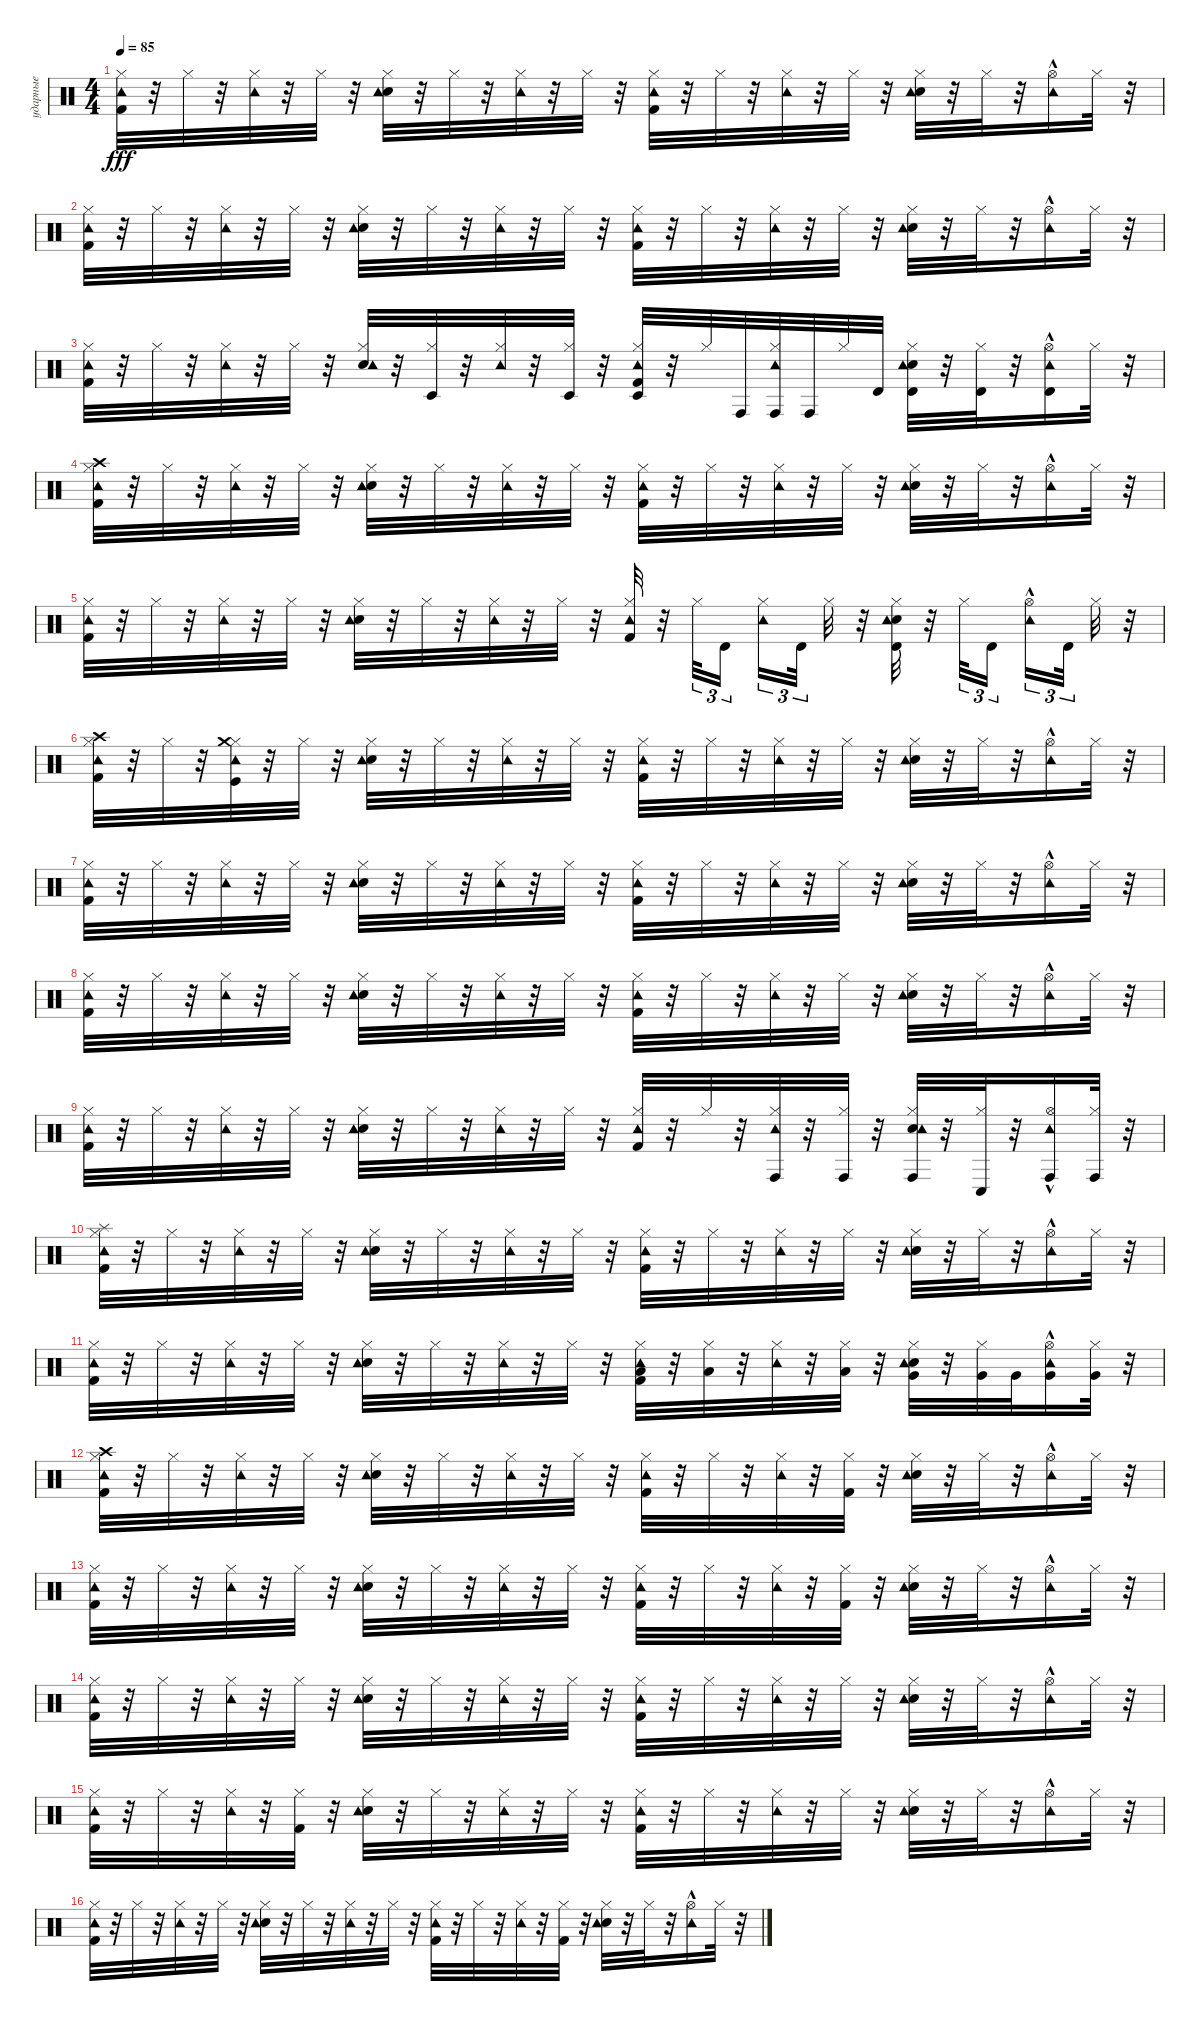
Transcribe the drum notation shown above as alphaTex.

\track ("ударные" "ударные") {instrument percussion}
\staff {score}
\articulation defaults
\ts (4 4)
\tempo 85
\clef neutral
\ks c
("Kick (hit) 2" "Hi-Hat (closed)" "Tambourine (hit)").32{dy fff} r.32 "Hi-Hat (closed)".32 r.32 ("Hi-Hat (closed)" "Tambourine (hit)").32 r.32 "Hi-Hat (closed)".32 r.32 ("Hi-Hat (closed)" "Electric Snare (hit)" "Tambourine (hit)").32 r.32 "Hi-Hat (closed)".32 r.32 ("Hi-Hat (closed)" "Tambourine (hit)").32 r.32 "Hi-Hat (closed)".32 r.32 ("Hi-Hat (closed)" "Kick (hit) 2" "Tambourine (hit)").32 r.32 "Hi-Hat (closed)".32 r.32 ("Hi-Hat (closed)" "Tambourine (hit)").32 r.32 "Hi-Hat (closed)".32 r.32 ("Hi-Hat (closed)" "Electric Snare (hit)" "Tambourine (hit)").32 r.32 "Hi-Hat (closed)".32 r.32 ("Hi-Hat (open)"{hac} "Tambourine (hit)").16 "Hi-Hat (closed)".32 r.32 |
("Kick (hit) 2" "Hi-Hat (closed)" "Tambourine (hit)").32 r.32 "Hi-Hat (closed)".32 r.32 ("Hi-Hat (closed)" "Tambourine (hit)").32 r.32 "Hi-Hat (closed)".32 r.32 ("Hi-Hat (closed)" "Electric Snare (hit)" "Tambourine (hit)").32 r.32 "Hi-Hat (closed)".32 r.32 ("Hi-Hat (closed)" "Tambourine (hit)").32 r.32 "Hi-Hat (closed)".32 r.32 ("Hi-Hat (closed)" "Kick (hit) 2" "Tambourine (hit)").32 r.32 "Hi-Hat (closed)".32 r.32 ("Hi-Hat (closed)" "Tambourine (hit)").32 r.32 "Hi-Hat (closed)".32 r.32 ("Hi-Hat (closed)" "Electric Snare (hit)" "Tambourine (hit)").32 r.32 "Hi-Hat (closed)".32 r.32 ("Hi-Hat (open)"{hac} "Tambourine (hit)").16 "Hi-Hat (closed)".32 r.32 |
("Kick (hit) 2" "Hi-Hat (closed)" "Tambourine (hit)").32 r.32 "Hi-Hat (closed)".32 r.32 ("Hi-Hat (closed)" "Tambourine (hit)").32 r.32 "Hi-Hat (closed)".32 r.32 ("Hi-Hat (closed)" "Electric Snare (hit)" "Tambourine (hit)").32 r.32 ("Hi-Hat (closed)" "Timbale low (hit)").32 r.32 ("Hi-Hat (closed)" "Tambourine (hit)").32 r.32 ("Hi-Hat (closed)" "Timbale low (hit)").32 r.32 ("Hi-Hat (closed)" "Kick (hit) 2" "Tambourine (hit)" "Timbale low (hit)").32 r.32 "Hi-Hat (closed)".32 "Conga high (hit)".32 ("Hi-Hat (closed)" "Tambourine (hit)" "Conga high (hit)").32 "Conga high (hit)".32 "Hi-Hat (closed)".32 "Timbale high (hit)".32 ("Hi-Hat (closed)" "Electric Snare (hit)" "Tambourine (hit)" "Timbale high (hit)").32 r.32 ("Hi-Hat (closed)" "Timbale high (hit)").32 r.32 ("Hi-Hat (open)"{hac} "Tambourine (hit)" "Timbale high (hit)").16 "Hi-Hat (closed)".32 r.32 |
("Kick (hit) 2" "Hi-Hat (closed)" "Tambourine (hit)" "Crash high (hit)").32 r.32 "Hi-Hat (closed)".32 r.32 ("Hi-Hat (closed)" "Tambourine (hit)").32 r.32 "Hi-Hat (closed)".32 r.32 ("Hi-Hat (closed)" "Electric Snare (hit)" "Tambourine (hit)").32 r.32 "Hi-Hat (closed)".32 r.32 ("Hi-Hat (closed)" "Tambourine (hit)").32 r.32 "Hi-Hat (closed)".32 r.32 ("Hi-Hat (closed)" "Kick (hit) 2" "Tambourine (hit)").32 r.32 "Hi-Hat (closed)".32 r.32 ("Hi-Hat (closed)" "Tambourine (hit)").32 r.32 "Hi-Hat (closed)".32 r.32 ("Hi-Hat (closed)" "Electric Snare (hit)" "Tambourine (hit)").32 r.32 "Hi-Hat (closed)".32 r.32 ("Hi-Hat (open)"{hac} "Tambourine (hit)").16 "Hi-Hat (closed)".32 r.32 |
("Kick (hit) 2" "Hi-Hat (closed)" "Tambourine (hit)").32 r.32 "Hi-Hat (closed)".32 r.32 ("Hi-Hat (closed)" "Tambourine (hit)").32 r.32 "Hi-Hat (closed)".32 r.32 ("Hi-Hat (closed)" "Electric Snare (hit)" "Tambourine (hit)").32 r.32 "Hi-Hat (closed)".32 r.32 ("Hi-Hat (closed)" "Tambourine (hit)").32 r.32 "Hi-Hat (closed)".32 r.32 ("Hi-Hat (closed)" "Kick (hit) 2" "Tambourine (hit)").32 r.32 "Hi-Hat (closed)".32{tu (3 2)} "Timbale high (hit)".16{tu (3 2)} ("Hi-Hat (closed)" "Tambourine (hit)").16{tu (3 2)} "Timbale high (hit)".32{tu (3 2)} "Hi-Hat (closed)".32 r.32 ("Timbale high (hit)" "Hi-Hat (closed)" "Electric Snare (hit)" "Tambourine (hit)").32 r.32 "Hi-Hat (closed)".32{tu (3 2)} "Timbale high (hit)".16{tu (3 2)} ("Hi-Hat (open)"{hac} "Tambourine (hit)").16{tu (3 2)} "Timbale high (hit)".32{tu (3 2)} "Hi-Hat (closed)".32 r.32 |
("Crash high (hit)" "Kick (hit) 2" "Hi-Hat (closed)" "Tambourine (hit)").32 r.32 "Hi-Hat (closed)".32 r.32 ("Hi-Hat (closed)" "Tambourine (hit)" "Crash medium (hit)" "Kick (hit)").32 r.32 "Hi-Hat (closed)".32 r.32 ("Hi-Hat (closed)" "Electric Snare (hit)" "Tambourine (hit)").32 r.32 "Hi-Hat (closed)".32 r.32 ("Hi-Hat (closed)" "Tambourine (hit)").32 r.32 "Hi-Hat (closed)".32 r.32 ("Hi-Hat (closed)" "Kick (hit) 2" "Tambourine (hit)").32 r.32 "Hi-Hat (closed)".32 r.32 ("Hi-Hat (closed)" "Tambourine (hit)").32 r.32 "Hi-Hat (closed)".32 r.32 ("Hi-Hat (closed)" "Electric Snare (hit)" "Tambourine (hit)").32 r.32 "Hi-Hat (closed)".32 r.32 ("Hi-Hat (open)"{hac} "Tambourine (hit)").16 "Hi-Hat (closed)".32 r.32 |
("Kick (hit) 2" "Hi-Hat (closed)" "Tambourine (hit)").32 r.32 "Hi-Hat (closed)".32 r.32 ("Hi-Hat (closed)" "Tambourine (hit)").32 r.32 "Hi-Hat (closed)".32 r.32 ("Hi-Hat (closed)" "Electric Snare (hit)" "Tambourine (hit)").32 r.32 "Hi-Hat (closed)".32 r.32 ("Hi-Hat (closed)" "Tambourine (hit)").32 r.32 "Hi-Hat (closed)".32 r.32 ("Hi-Hat (closed)" "Kick (hit) 2" "Tambourine (hit)").32 r.32 "Hi-Hat (closed)".32 r.32 ("Hi-Hat (closed)" "Tambourine (hit)").32 r.32 "Hi-Hat (closed)".32 r.32 ("Hi-Hat (closed)" "Electric Snare (hit)" "Tambourine (hit)").32 r.32 "Hi-Hat (closed)".32 r.32 ("Hi-Hat (open)"{hac} "Tambourine (hit)").16 "Hi-Hat (closed)".32 r.32 |
("Kick (hit) 2" "Hi-Hat (closed)" "Tambourine (hit)").32 r.32 "Hi-Hat (closed)".32 r.32 ("Hi-Hat (closed)" "Tambourine (hit)").32 r.32 "Hi-Hat (closed)".32 r.32 ("Hi-Hat (closed)" "Electric Snare (hit)" "Tambourine (hit)").32 r.32 "Hi-Hat (closed)".32 r.32 ("Hi-Hat (closed)" "Tambourine (hit)").32 r.32 "Hi-Hat (closed)".32 r.32 ("Hi-Hat (closed)" "Kick (hit) 2" "Tambourine (hit)").32 r.32 "Hi-Hat (closed)".32 r.32 ("Hi-Hat (closed)" "Tambourine (hit)").32 r.32 "Hi-Hat (closed)".32 r.32 ("Hi-Hat (closed)" "Electric Snare (hit)" "Tambourine (hit)").32 r.32 "Hi-Hat (closed)".32 r.32 ("Hi-Hat (open)"{hac} "Tambourine (hit)").16 "Hi-Hat (closed)".32 r.32 |
("Kick (hit) 2" "Hi-Hat (closed)" "Tambourine (hit)").32 r.32 "Hi-Hat (closed)".32 r.32 ("Hi-Hat (closed)" "Tambourine (hit)").32 r.32 "Hi-Hat (closed)".32 r.32 ("Hi-Hat (closed)" "Electric Snare (hit)" "Tambourine (hit)").32 r.32 "Hi-Hat (closed)".32 r.32 ("Hi-Hat (closed)" "Tambourine (hit)").32 r.32 "Hi-Hat (closed)".32 r.32 ("Hi-Hat (closed)" "Kick (hit) 2" "Tambourine (hit)").32 r.32 "Hi-Hat (closed)".32 r.32 ("Conga high (hit)" "Hi-Hat (closed)" "Tambourine (hit)").32 r.32 ("Conga high (hit)" "Hi-Hat (closed)").32 r.32 ("Conga high (hit)" "Hi-Hat (closed)" "Electric Snare (hit)" "Tambourine (hit)").32 r.32 ("Conga low (hit)" "Hi-Hat (closed)").32 r.32 ("Conga high (hit)" "Hi-Hat (open)"{hac} "Tambourine (hit)").16 ("Conga high (hit)" "Hi-Hat (closed)").32 r.32 |
("Splash (hit)" "Kick (hit) 2" "Hi-Hat (closed)" "Tambourine (hit)").32 r.32 "Hi-Hat (closed)".32 r.32 ("Hi-Hat (closed)" "Tambourine (hit)").32 r.32 "Hi-Hat (closed)".32 r.32 ("Hi-Hat (closed)" "Electric Snare (hit)" "Tambourine (hit)").32 r.32 "Hi-Hat (closed)".32 r.32 ("Hi-Hat (closed)" "Tambourine (hit)").32 r.32 "Hi-Hat (closed)".32 r.32 ("Hi-Hat (closed)" "Kick (hit) 2" "Tambourine (hit)").32 r.32 "Hi-Hat (closed)".32 r.32 ("Hi-Hat (closed)" "Tambourine (hit)").32 r.32 "Hi-Hat (closed)".32 r.32 ("Hi-Hat (closed)" "Electric Snare (hit)" "Tambourine (hit)").32 r.32 "Hi-Hat (closed)".32 r.32 ("Hi-Hat (open)"{hac} "Tambourine (hit)").16 "Hi-Hat (closed)".32 r.32 |
("Kick (hit) 2" "Hi-Hat (closed)" "Tambourine (hit)").32 r.32 "Hi-Hat (closed)".32 r.32 ("Hi-Hat (closed)" "Tambourine (hit)").32 r.32 "Hi-Hat (closed)".32 r.32 ("Hi-Hat (closed)" "Electric Snare (hit)" "Tambourine (hit)").32 r.32 "Hi-Hat (closed)".32 r.32 ("Hi-Hat (closed)" "Tambourine (hit)").32 r.32 "Hi-Hat (closed)".32 r.32 ("Low Tom (hit)" "Hi-Hat (closed)" "Kick (hit) 2" "Tambourine (hit)").32 r.32 ("Low Tom (hit)" "Hi-Hat (closed)").32 r.32 ("Hi-Hat (closed)" "Tambourine (hit)").32 r.32 ("Low Tom (hit)" "Hi-Hat (closed)").32 r.32 ("Very Low Tom (hit)" "Hi-Hat (closed)" "Electric Snare (hit)" "Tambourine (hit)").32 r.32 ("Very Low Tom (hit)" "Hi-Hat (closed)").32 "Very Low Tom (hit)".32 ("Very Low Tom (hit)" "Hi-Hat (open)"{hac} "Tambourine (hit)").16 ("Very Low Tom (hit)" "Hi-Hat (closed)").32 r.32 |
("Crash high (hit)" "Kick (hit) 2" "Hi-Hat (closed)" "Tambourine (hit)").32 r.32 "Hi-Hat (closed)".32 r.32 ("Hi-Hat (closed)" "Tambourine (hit)").32 r.32 "Hi-Hat (closed)".32 r.32 ("Hi-Hat (closed)" "Electric Snare (hit)" "Tambourine (hit)").32 r.32 "Hi-Hat (closed)".32 r.32 ("Hi-Hat (closed)" "Tambourine (hit)").32 r.32 "Hi-Hat (closed)".32 r.32 ("Hi-Hat (closed)" "Kick (hit) 2" "Tambourine (hit)").32 r.32 "Hi-Hat (closed)".32 r.32 ("Hi-Hat (closed)" "Tambourine (hit)").32 r.32 ("Kick (hit) 2" "Hi-Hat (closed)").32 r.32 ("Hi-Hat (closed)" "Electric Snare (hit)" "Tambourine (hit)").32 r.32 "Hi-Hat (closed)".32 r.32 ("Hi-Hat (open)"{hac} "Tambourine (hit)").16 "Hi-Hat (closed)".32 r.32 |
("Kick (hit) 2" "Hi-Hat (closed)" "Tambourine (hit)").32 r.32 "Hi-Hat (closed)".32 r.32 ("Hi-Hat (closed)" "Tambourine (hit)").32 r.32 "Hi-Hat (closed)".32 r.32 ("Hi-Hat (closed)" "Electric Snare (hit)" "Tambourine (hit)").32 r.32 "Hi-Hat (closed)".32 r.32 ("Hi-Hat (closed)" "Tambourine (hit)").32 r.32 "Hi-Hat (closed)".32 r.32 ("Hi-Hat (closed)" "Kick (hit) 2" "Tambourine (hit)").32 r.32 "Hi-Hat (closed)".32 r.32 ("Hi-Hat (closed)" "Tambourine (hit)").32 r.32 ("Kick (hit) 2" "Hi-Hat (closed)").32 r.32 ("Hi-Hat (closed)" "Electric Snare (hit)" "Tambourine (hit)").32 r.32 "Hi-Hat (closed)".32 r.32 ("Hi-Hat (open)"{hac} "Tambourine (hit)").16 "Hi-Hat (closed)".32 r.32 |
("Kick (hit) 2" "Hi-Hat (closed)" "Tambourine (hit)").32 r.32 "Hi-Hat (closed)".32 r.32 ("Hi-Hat (closed)" "Tambourine (hit)").32 r.32 "Hi-Hat (closed)".32 r.32 ("Hi-Hat (closed)" "Electric Snare (hit)" "Tambourine (hit)").32 r.32 "Hi-Hat (closed)".32 r.32 ("Hi-Hat (closed)" "Tambourine (hit)").32 r.32 "Hi-Hat (closed)".32 r.32 ("Hi-Hat (closed)" "Kick (hit) 2" "Tambourine (hit)").32 r.32 "Hi-Hat (closed)".32 r.32 ("Hi-Hat (closed)" "Tambourine (hit)").32 r.32 "Hi-Hat (closed)".32 r.32 ("Hi-Hat (closed)" "Electric Snare (hit)" "Tambourine (hit)").32 r.32 "Hi-Hat (closed)".32 r.32 ("Hi-Hat (open)"{hac} "Tambourine (hit)").16 "Hi-Hat (closed)".32 r.32 |
("Kick (hit) 2" "Hi-Hat (closed)" "Tambourine (hit)").32 r.32 "Hi-Hat (closed)".32 r.32 ("Hi-Hat (closed)" "Tambourine (hit)").32 r.32 ("Kick (hit) 2" "Hi-Hat (closed)").32 r.32 ("Hi-Hat (closed)" "Electric Snare (hit)" "Tambourine (hit)").32 r.32 "Hi-Hat (closed)".32 r.32 ("Hi-Hat (closed)" "Tambourine (hit)").32 r.32 "Hi-Hat (closed)".32 r.32 ("Hi-Hat (closed)" "Kick (hit) 2" "Tambourine (hit)").32 r.32 "Hi-Hat (closed)".32 r.32 ("Hi-Hat (closed)" "Tambourine (hit)").32 r.32 "Hi-Hat (closed)".32 r.32 ("Hi-Hat (closed)" "Electric Snare (hit)" "Tambourine (hit)").32 r.32 "Hi-Hat (closed)".32 r.32 ("Hi-Hat (open)"{hac} "Tambourine (hit)").16 "Hi-Hat (closed)".32 r.32 |
("Kick (hit) 2" "Hi-Hat (closed)" "Tambourine (hit)").32 r.32 "Hi-Hat (closed)".32 r.32 ("Hi-Hat (closed)" "Tambourine (hit)").32 r.32 "Hi-Hat (closed)".32 r.32 ("Hi-Hat (closed)" "Electric Snare (hit)" "Tambourine (hit)").32 r.32 "Hi-Hat (closed)".32 r.32 ("Hi-Hat (closed)" "Tambourine (hit)").32 r.32 "Hi-Hat (closed)".32 r.32 ("Hi-Hat (closed)" "Kick (hit) 2" "Tambourine (hit)").32 r.32 "Hi-Hat (closed)".32 r.32 ("Hi-Hat (closed)" "Tambourine (hit)").32 r.32 ("Kick (hit) 2" "Hi-Hat (closed)").32 r.32 ("Hi-Hat (closed)" "Electric Snare (hit)" "Tambourine (hit)").32 r.32 "Hi-Hat (closed)".32 r.32 ("Hi-Hat (open)"{hac} "Tambourine (hit)").16 "Hi-Hat (closed)".32 r.32
